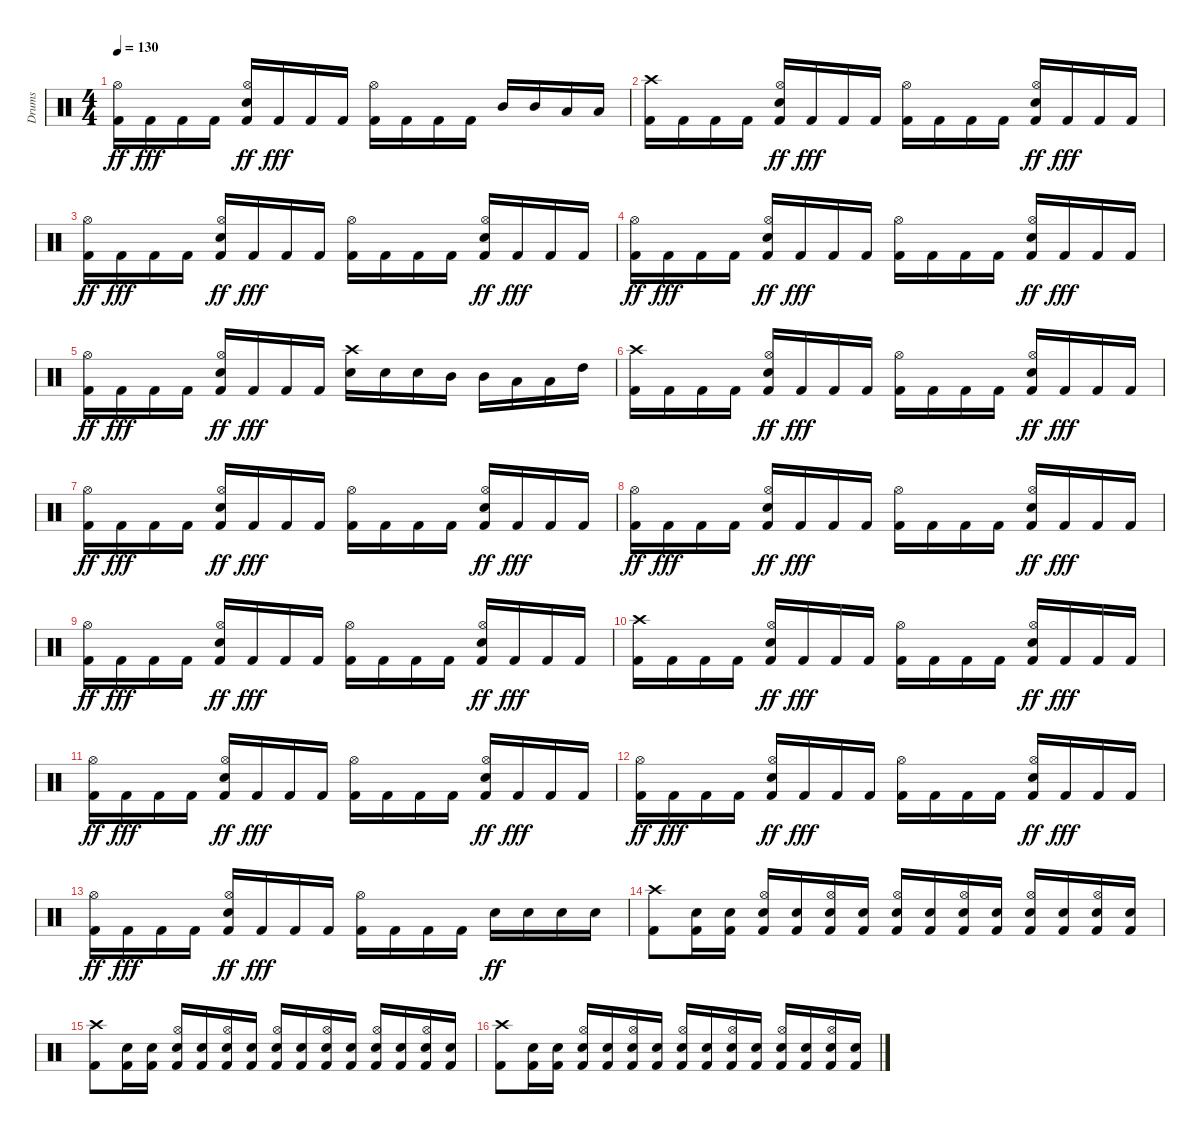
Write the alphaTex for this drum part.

\track ("Drums" "Drums") {instrument percussion}
\staff {score}
\articulation defaults
\ts (4 4)
\tempo 130
\clef neutral
\ks c
("Kick (hit) 2" "Hi-Hat (open)").16{dy ff} "Kick (hit) 2".16{dy fff} "Kick (hit) 2".16 "Kick (hit) 2".16 ("Kick (hit) 2" "Hi-Hat (open)" "Snare (hit) 2").16{dy ff} "Kick (hit) 2".16{dy fff} "Kick (hit) 2".16 "Kick (hit) 2".16 ("Kick (hit) 2" "Hi-Hat (open)").16 "Kick (hit) 2".16 "Kick (hit) 2".16 "Kick (hit) 2".16 "Mid Tom (hit)".16 "Mid Tom (hit)".16 "Low Tom (hit)".16 "Low Tom (hit)".16 |
("Kick (hit) 2" "Crash high (hit)").16 "Kick (hit) 2".16 "Kick (hit) 2".16 "Kick (hit) 2".16 ("Kick (hit) 2" "Hi-Hat (open)" "Snare (hit) 2").16{dy ff} "Kick (hit) 2".16{dy fff} "Kick (hit) 2".16 "Kick (hit) 2".16 ("Kick (hit) 2" "Hi-Hat (open)").16 "Kick (hit) 2".16 "Kick (hit) 2".16 "Kick (hit) 2".16 ("Kick (hit) 2" "Hi-Hat (open)" "Snare (hit) 2").16{dy ff} "Kick (hit) 2".16{dy fff} "Kick (hit) 2".16 "Kick (hit) 2".16 |
("Kick (hit) 2" "Hi-Hat (open)").16{dy ff} "Kick (hit) 2".16{dy fff} "Kick (hit) 2".16 "Kick (hit) 2".16 ("Kick (hit) 2" "Hi-Hat (open)" "Snare (hit) 2").16{dy ff} "Kick (hit) 2".16{dy fff} "Kick (hit) 2".16 "Kick (hit) 2".16 ("Kick (hit) 2" "Hi-Hat (open)").16 "Kick (hit) 2".16 "Kick (hit) 2".16 "Kick (hit) 2".16 ("Kick (hit) 2" "Hi-Hat (open)" "Snare (hit) 2").16{dy ff} "Kick (hit) 2".16{dy fff} "Kick (hit) 2".16 "Kick (hit) 2".16 |
("Kick (hit) 2" "Hi-Hat (open)").16{dy ff} "Kick (hit) 2".16{dy fff} "Kick (hit) 2".16 "Kick (hit) 2".16 ("Kick (hit) 2" "Hi-Hat (open)" "Snare (hit) 2").16{dy ff} "Kick (hit) 2".16{dy fff} "Kick (hit) 2".16 "Kick (hit) 2".16 ("Kick (hit) 2" "Hi-Hat (open)").16 "Kick (hit) 2".16 "Kick (hit) 2".16 "Kick (hit) 2".16 ("Kick (hit) 2" "Hi-Hat (open)" "Snare (hit) 2").16{dy ff} "Kick (hit) 2".16{dy fff} "Kick (hit) 2".16 "Kick (hit) 2".16 |
("Kick (hit) 2" "Hi-Hat (open)").16{dy ff} "Kick (hit) 2".16{dy fff} "Kick (hit) 2".16 "Kick (hit) 2".16 ("Kick (hit) 2" "Hi-Hat (open)" "Snare (hit) 2").16{dy ff} "Kick (hit) 2".16{dy fff} "Kick (hit) 2".16 "Kick (hit) 2".16 ("Crash high (hit)" "Snare (hit) 2").16 "Snare (hit) 2".16 "Snare (hit) 2".16 "Mid Tom (hit)".16 "Mid Tom (hit)".16 "Low Tom (hit)".16 "Low Tom (hit)".16 "High Tom (hit)".16 |
("Kick (hit) 2" "Crash high (hit)").16 "Kick (hit) 2".16 "Kick (hit) 2".16 "Kick (hit) 2".16 ("Kick (hit) 2" "Hi-Hat (open)" "Snare (hit) 2").16{dy ff} "Kick (hit) 2".16{dy fff} "Kick (hit) 2".16 "Kick (hit) 2".16 ("Kick (hit) 2" "Hi-Hat (open)").16 "Kick (hit) 2".16 "Kick (hit) 2".16 "Kick (hit) 2".16 ("Kick (hit) 2" "Hi-Hat (open)" "Snare (hit) 2").16{dy ff} "Kick (hit) 2".16{dy fff} "Kick (hit) 2".16 "Kick (hit) 2".16 |
("Kick (hit) 2" "Hi-Hat (open)").16{dy ff} "Kick (hit) 2".16{dy fff} "Kick (hit) 2".16 "Kick (hit) 2".16 ("Kick (hit) 2" "Hi-Hat (open)" "Snare (hit) 2").16{dy ff} "Kick (hit) 2".16{dy fff} "Kick (hit) 2".16 "Kick (hit) 2".16 ("Kick (hit) 2" "Hi-Hat (open)").16 "Kick (hit) 2".16 "Kick (hit) 2".16 "Kick (hit) 2".16 ("Kick (hit) 2" "Hi-Hat (open)" "Snare (hit) 2").16{dy ff} "Kick (hit) 2".16{dy fff} "Kick (hit) 2".16 "Kick (hit) 2".16 |
("Kick (hit) 2" "Hi-Hat (open)").16{dy ff} "Kick (hit) 2".16{dy fff} "Kick (hit) 2".16 "Kick (hit) 2".16 ("Kick (hit) 2" "Hi-Hat (open)" "Snare (hit) 2").16{dy ff} "Kick (hit) 2".16{dy fff} "Kick (hit) 2".16 "Kick (hit) 2".16 ("Kick (hit) 2" "Hi-Hat (open)").16 "Kick (hit) 2".16 "Kick (hit) 2".16 "Kick (hit) 2".16 ("Kick (hit) 2" "Hi-Hat (open)" "Snare (hit) 2").16{dy ff} "Kick (hit) 2".16{dy fff} "Kick (hit) 2".16 "Kick (hit) 2".16 |
("Kick (hit) 2" "Hi-Hat (open)").16{dy ff} "Kick (hit) 2".16{dy fff} "Kick (hit) 2".16 "Kick (hit) 2".16 ("Kick (hit) 2" "Hi-Hat (open)" "Snare (hit) 2").16{dy ff} "Kick (hit) 2".16{dy fff} "Kick (hit) 2".16 "Kick (hit) 2".16 ("Kick (hit) 2" "Hi-Hat (open)").16 "Kick (hit) 2".16 "Kick (hit) 2".16 "Kick (hit) 2".16 ("Kick (hit) 2" "Hi-Hat (open)" "Snare (hit) 2").16{dy ff} "Kick (hit) 2".16{dy fff} "Kick (hit) 2".16 "Kick (hit) 2".16 |
("Kick (hit) 2" "Crash high (hit)").16 "Kick (hit) 2".16 "Kick (hit) 2".16 "Kick (hit) 2".16 ("Kick (hit) 2" "Hi-Hat (open)" "Snare (hit) 2").16{dy ff} "Kick (hit) 2".16{dy fff} "Kick (hit) 2".16 "Kick (hit) 2".16 ("Kick (hit) 2" "Hi-Hat (open)").16 "Kick (hit) 2".16 "Kick (hit) 2".16 "Kick (hit) 2".16 ("Kick (hit) 2" "Hi-Hat (open)" "Snare (hit) 2").16{dy ff} "Kick (hit) 2".16{dy fff} "Kick (hit) 2".16 "Kick (hit) 2".16 |
("Kick (hit) 2" "Hi-Hat (open)").16{dy ff} "Kick (hit) 2".16{dy fff} "Kick (hit) 2".16 "Kick (hit) 2".16 ("Kick (hit) 2" "Hi-Hat (open)" "Snare (hit) 2").16{dy ff} "Kick (hit) 2".16{dy fff} "Kick (hit) 2".16 "Kick (hit) 2".16 ("Kick (hit) 2" "Hi-Hat (open)").16 "Kick (hit) 2".16 "Kick (hit) 2".16 "Kick (hit) 2".16 ("Kick (hit) 2" "Hi-Hat (open)" "Snare (hit) 2").16{dy ff} "Kick (hit) 2".16{dy fff} "Kick (hit) 2".16 "Kick (hit) 2".16 |
("Kick (hit) 2" "Hi-Hat (open)").16{dy ff} "Kick (hit) 2".16{dy fff} "Kick (hit) 2".16 "Kick (hit) 2".16 ("Kick (hit) 2" "Hi-Hat (open)" "Snare (hit) 2").16{dy ff} "Kick (hit) 2".16{dy fff} "Kick (hit) 2".16 "Kick (hit) 2".16 ("Kick (hit) 2" "Hi-Hat (open)").16 "Kick (hit) 2".16 "Kick (hit) 2".16 "Kick (hit) 2".16 ("Kick (hit) 2" "Hi-Hat (open)" "Snare (hit) 2").16{dy ff} "Kick (hit) 2".16{dy fff} "Kick (hit) 2".16 "Kick (hit) 2".16 |
("Kick (hit) 2" "Hi-Hat (open)").16{dy ff} "Kick (hit) 2".16{dy fff} "Kick (hit) 2".16 "Kick (hit) 2".16 ("Kick (hit) 2" "Hi-Hat (open)" "Snare (hit) 2").16{dy ff} "Kick (hit) 2".16{dy fff} "Kick (hit) 2".16 "Kick (hit) 2".16 ("Kick (hit) 2" "Hi-Hat (open)").16 "Kick (hit) 2".16 "Kick (hit) 2".16 "Kick (hit) 2".16 "Snare (hit) 2".16{dy ff} "Snare (hit) 2".16 "Snare (hit) 2".16 "Snare (hit) 2".16 |
("Crash high (hit)" "Kick (hit) 2").8 ("Snare (hit) 2" "Kick (hit) 2").16 ("Snare (hit) 2" "Kick (hit) 2").16 ("Snare (hit) 2" "Kick (hit) 2" "Hi-Hat (open)").16 ("Snare (hit) 2" "Kick (hit) 2").16 ("Snare (hit) 2" "Kick (hit) 2" "Hi-Hat (open)").16 ("Snare (hit) 2" "Kick (hit) 2").16 ("Snare (hit) 2" "Kick (hit) 2" "Hi-Hat (open)").16 ("Snare (hit) 2" "Kick (hit) 2").16 ("Snare (hit) 2" "Kick (hit) 2" "Hi-Hat (open)").16 ("Snare (hit) 2" "Kick (hit) 2").16 ("Snare (hit) 2" "Kick (hit) 2" "Hi-Hat (open)").16 ("Snare (hit) 2" "Kick (hit) 2").16 ("Snare (hit) 2" "Kick (hit) 2" "Hi-Hat (open)").16 ("Snare (hit) 2" "Kick (hit) 2").16 |
("Crash high (hit)" "Kick (hit) 2").8 ("Snare (hit) 2" "Kick (hit) 2").16 ("Snare (hit) 2" "Kick (hit) 2").16 ("Snare (hit) 2" "Kick (hit) 2" "Hi-Hat (open)").16 ("Snare (hit) 2" "Kick (hit) 2").16 ("Snare (hit) 2" "Kick (hit) 2" "Hi-Hat (open)").16 ("Snare (hit) 2" "Kick (hit) 2").16 ("Snare (hit) 2" "Kick (hit) 2" "Hi-Hat (open)").16 ("Snare (hit) 2" "Kick (hit) 2").16 ("Snare (hit) 2" "Kick (hit) 2" "Hi-Hat (open)").16 ("Snare (hit) 2" "Kick (hit) 2").16 ("Snare (hit) 2" "Kick (hit) 2" "Hi-Hat (open)").16 ("Snare (hit) 2" "Kick (hit) 2").16 ("Snare (hit) 2" "Kick (hit) 2" "Hi-Hat (open)").16 ("Snare (hit) 2" "Kick (hit) 2").16 |
("Crash high (hit)" "Kick (hit) 2").8 ("Snare (hit) 2" "Kick (hit) 2").16 ("Snare (hit) 2" "Kick (hit) 2").16 ("Snare (hit) 2" "Kick (hit) 2" "Hi-Hat (open)").16 ("Snare (hit) 2" "Kick (hit) 2").16 ("Snare (hit) 2" "Kick (hit) 2" "Hi-Hat (open)").16 ("Snare (hit) 2" "Kick (hit) 2").16 ("Snare (hit) 2" "Kick (hit) 2" "Hi-Hat (open)").16 ("Snare (hit) 2" "Kick (hit) 2").16 ("Snare (hit) 2" "Kick (hit) 2" "Hi-Hat (open)").16 ("Snare (hit) 2" "Kick (hit) 2").16 ("Snare (hit) 2" "Kick (hit) 2" "Hi-Hat (open)").16 ("Snare (hit) 2" "Kick (hit) 2").16 ("Snare (hit) 2" "Kick (hit) 2" "Hi-Hat (open)").16 ("Snare (hit) 2" "Kick (hit) 2").16
